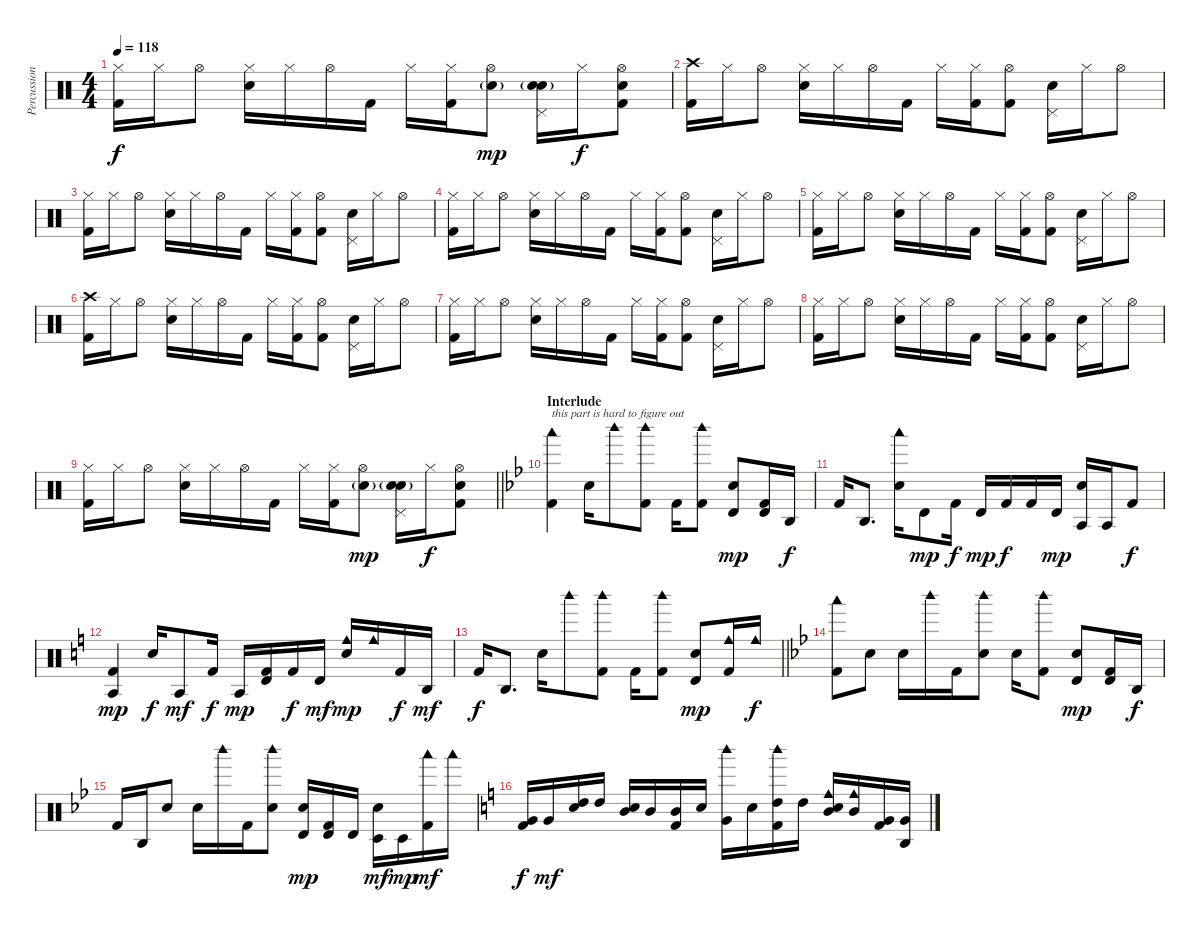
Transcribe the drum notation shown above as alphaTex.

\track ("Percussion" "Percussion") {instrument percussion}
\staff {score}
\articulation defaults
\ts (4 4)
\tempo 118
\clef neutral
\ks c
("Hi-Hat (closed)" "Kick (hit) 2").16{dy f} "Hi-Hat (closed)".16 "Hi-Hat (open)".8 ("Hi-Hat (closed)" "Electric Snare (hit)").16 "Hi-Hat (closed)".16 "Hi-Hat (open)".16 "Kick (hit) 2".16 "Hi-Hat (closed)".16 ("Hi-Hat (closed)" "Kick (hit) 2").16 ("Hi-Hat (open)" "Hand Clap (hit)"{g}).8{dy mp} ("Pedal Hi-Hat (hit)" "Electric Snare (hit)" "Hand Clap (hit)"{g}).16 "Hi-Hat (closed)".16{dy f} ("Hi-Hat (open)" "Electric Snare (hit)" "Kick (hit) 2").8 |
("Crash high (hit)" "Kick (hit) 2").16 "Hi-Hat (closed)".16 "Hi-Hat (open)".8 ("Hi-Hat (closed)" "Electric Snare (hit)").16 "Hi-Hat (closed)".16 "Hi-Hat (open)".16 "Kick (hit) 2".16 "Hi-Hat (closed)".16 ("Hi-Hat (closed)" "Kick (hit) 2").16 ("Hi-Hat (open)" "Kick (hit) 2").8 ("Pedal Hi-Hat (hit)" "Electric Snare (hit)").16 "Hi-Hat (closed)".16 "Hi-Hat (open)".8 |
("Hi-Hat (closed)" "Kick (hit) 2").16 "Hi-Hat (closed)".16 "Hi-Hat (open)".8 ("Hi-Hat (closed)" "Electric Snare (hit)").16 "Hi-Hat (closed)".16 "Hi-Hat (open)".16 "Kick (hit) 2".16 "Hi-Hat (closed)".16 ("Hi-Hat (closed)" "Kick (hit) 2").16 ("Hi-Hat (open)" "Kick (hit) 2").8 ("Pedal Hi-Hat (hit)" "Electric Snare (hit)").16 "Hi-Hat (closed)".16 "Hi-Hat (open)".8 |
("Hi-Hat (closed)" "Kick (hit) 2").16 "Hi-Hat (closed)".16 "Hi-Hat (open)".8 ("Hi-Hat (closed)" "Electric Snare (hit)").16 "Hi-Hat (closed)".16 "Hi-Hat (open)".16 "Kick (hit) 2".16 "Hi-Hat (closed)".16 ("Hi-Hat (closed)" "Kick (hit) 2").16 ("Hi-Hat (open)" "Kick (hit) 2").8 ("Pedal Hi-Hat (hit)" "Electric Snare (hit)").16 "Hi-Hat (closed)".16 "Hi-Hat (open)".8 |
("Hi-Hat (closed)" "Kick (hit) 2").16 "Hi-Hat (closed)".16 "Hi-Hat (open)".8 ("Hi-Hat (closed)" "Electric Snare (hit)").16 "Hi-Hat (closed)".16 "Hi-Hat (open)".16 "Kick (hit) 2".16 "Hi-Hat (closed)".16 ("Hi-Hat (closed)" "Kick (hit) 2").16 ("Hi-Hat (open)" "Kick (hit) 2").8 ("Pedal Hi-Hat (hit)" "Electric Snare (hit)").16 "Hi-Hat (closed)".16 "Hi-Hat (open)".8 |
("Crash high (hit)" "Kick (hit) 2").16 "Hi-Hat (closed)".16 "Hi-Hat (open)".8 ("Hi-Hat (closed)" "Electric Snare (hit)").16 "Hi-Hat (closed)".16 "Hi-Hat (open)".16 "Kick (hit) 2".16 "Hi-Hat (closed)".16 ("Hi-Hat (closed)" "Kick (hit) 2").16 ("Hi-Hat (open)" "Kick (hit) 2").8 ("Pedal Hi-Hat (hit)" "Electric Snare (hit)").16 "Hi-Hat (closed)".16 "Hi-Hat (open)".8 |
("Hi-Hat (closed)" "Kick (hit) 2").16 "Hi-Hat (closed)".16 "Hi-Hat (open)".8 ("Hi-Hat (closed)" "Electric Snare (hit)").16 "Hi-Hat (closed)".16 "Hi-Hat (open)".16 "Kick (hit) 2".16 "Hi-Hat (closed)".16 ("Hi-Hat (closed)" "Kick (hit) 2").16 ("Hi-Hat (open)" "Kick (hit) 2").8 ("Pedal Hi-Hat (hit)" "Electric Snare (hit)").16 "Hi-Hat (closed)".16 "Hi-Hat (open)".8 |
("Hi-Hat (closed)" "Kick (hit) 2").16 "Hi-Hat (closed)".16 "Hi-Hat (open)".8 ("Hi-Hat (closed)" "Electric Snare (hit)").16 "Hi-Hat (closed)".16 "Hi-Hat (open)".16 "Kick (hit) 2".16 "Hi-Hat (closed)".16 ("Hi-Hat (closed)" "Kick (hit) 2").16 ("Hi-Hat (open)" "Kick (hit) 2").8 ("Pedal Hi-Hat (hit)" "Electric Snare (hit)").16 "Hi-Hat (closed)".16 "Hi-Hat (open)".8 |
\barLineRight lightlight
("Hi-Hat (closed)" "Kick (hit) 2").16 "Hi-Hat (closed)".16 "Hi-Hat (open)".8 ("Hi-Hat (closed)" "Electric Snare (hit)").16 "Hi-Hat (closed)".16 "Hi-Hat (open)".16 "Kick (hit) 2".16 "Hi-Hat (closed)".16 ("Hi-Hat (closed)" "Kick (hit) 2").16 ("Hi-Hat (open)" "Hand Clap (hit)"{g}).8{dy mp} ("Pedal Hi-Hat (hit)" "Electric Snare (hit)" "Hand Clap (hit)"{g}).16 "Hi-Hat (closed)".16{dy f} ("Hi-Hat (open)" "Electric Snare (hit)" "Kick (hit) 2").8 |
\section ("" "Interlude")
\ks bb
("Woodblock low (hit)" "Kick (hit) 2").4{txt "this part is hard to figure out"} "Electric Snare (hit)".16 "Woodblock high (hit)".8 ("Woodblock high (hit)" "Kick (hit) 2").8 "Kick (hit) 2".16 ("Woodblock high (hit)" "Kick (hit) 2").8 ("Timbale high (hit)" "Electric Snare (hit)").8{dy mp} ("Timbale high (hit)" "Kick (hit) 2").16 "Agogo high (hit)".16{dy f} |
"Kick (hit) 2".16 "Agogo high (hit)".8{d} ("Woodblock low (hit)" "Electric Snare (hit)").16 "Timbale high (hit)".8{dy mp} "Kick (hit) 2".16{dy f} "Timbale high (hit)".16{dy mp} "Kick (hit) 2".16{dy f} "Kick (hit) 2".16 "Timbale high (hit)".16{dy mp} ("Agogo tow (hit)" "Electric Snare (hit)").16 "Agogo tow (hit)".16 "Kick (hit) 2".8{dy f} |
\ks c
("Agogo tow (hit)" "Kick (hit) 2").4{dy mp} "Electric Snare (hit)".16{dy f} "Agogo tow (hit)".8{dy mf} "Kick (hit) 2".16{dy f} "Agogo tow (hit)".16{dy mp} ("Timbale high (hit)" "Kick (hit) 2").16 "Kick (hit) 2".16{dy f} "Timbale high (hit)".16{dy mf} ("Cowbell medium (hit)" "Electric Snare (hit)").16{dy mp} "Cowbell medium (hit)".16 "Kick (hit) 2".16{dy f} "Agogo high (hit)".16{dy mf} |
\barLineRight lightlight "Kick (hit) 2".16{dy f} "Agogo high (hit)".8{d} "Electric Snare (hit)".16 "Woodblock high (hit)".8
("Woodblock high (hit)" "Kick (hit) 2").8 "Kick (hit) 2".16 ("Woodblock high (hit)" "Kick (hit) 2").8 ("Timbale high (hit)" "Electric Snare (hit)").8{dy mp} ("Cowbell medium (hit)" "Kick (hit) 2").16 "Cowbell medium (hit)".16{dy f} |
\ks bb
("Woodblock low (hit)" "Kick (hit) 2").8 "Snare (hit) 2".8 "Snare (hit) 2".16 "Woodblock high (hit)".16 "Kick (hit) 2".16 ("Woodblock high (hit)" "Snare (hit) 2").8 "Snare (hit) 2".16 ("Woodblock high (hit)" "Kick (hit) 2").8 ("Timbale high (hit)" "Snare (hit) 2").8{dy mp} ("Timbale high (hit)" "Kick (hit) 2").16 "Agogo high (hit)".16{dy f} |
"Kick (hit) 2".16 "Agogo high (hit)".16 "Snare (hit) 2".8 "Snare (hit) 2".16 "Woodblock high (hit)".16 "Kick (hit) 2".16 ("Woodblock high (hit)" "Snare (hit) 2").8 ("Timbale high (hit)" "Snare (hit) 2").16{dy mp} ("Timbale high (hit)" "Kick (hit) 2").16 "Timbale high (hit)".16 ("Timbale low (hit)" "Snare (hit) 2").16{dy mf} "Timbale low (hit)".16{dy mp} ("Woodblock low (hit)" "Kick (hit) 2").16{dy mf} "Woodblock low (hit)".16 |
\ks c
("Very Low Tom (hit)" "Kick (hit) 2").16{dy f} "Very Low Tom (hit)".16{dy mf} ("High Tom (hit)" "Snare (hit) 2").16 "High Tom (hit)".16 ("Mid Tom (hit)" "Snare (hit) 2").16 "Mid Tom (hit)".16 ("Mid Tom (hit)" "Kick (hit) 2").16 "Snare (hit) 2".16 ("Woodblock high (hit)" "Very Low Tom (hit)").16 "Snare (hit) 2".16 ("Woodblock high (hit)" "High Tom (hit)" "Kick (hit) 2").16 "High Tom (hit)".16 ("Cowbell medium (hit)" "Mid Tom (hit)" "Snare (hit) 2").16 ("Cowbell medium (hit)" "Mid Tom (hit)").16 ("Very Low Tom (hit)" "Kick (hit) 2").16 ("Agogo high (hit)" "Very Low Tom (hit)").16
